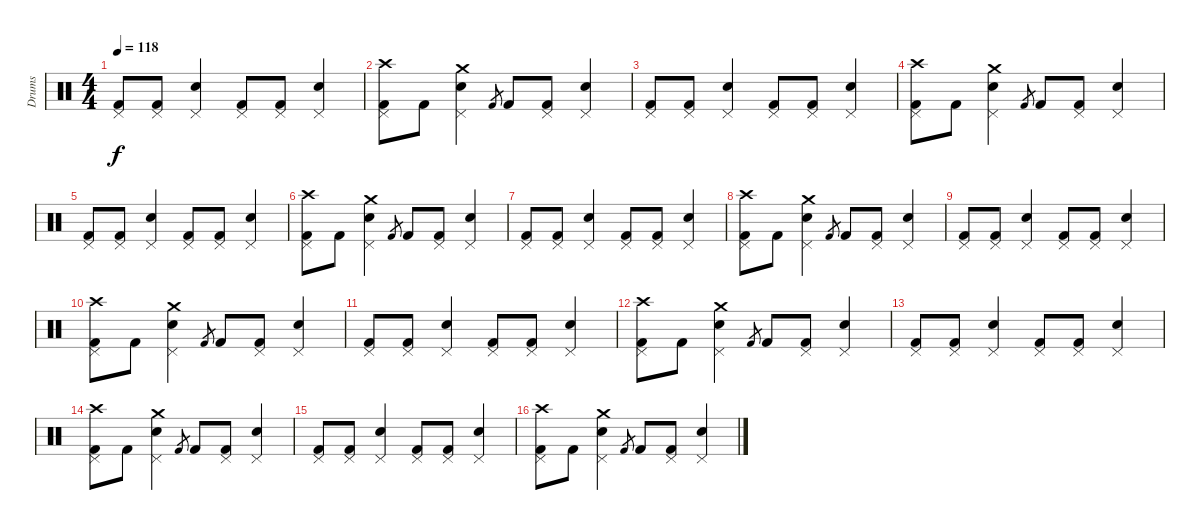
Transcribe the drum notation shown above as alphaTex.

\track ("Drums" "Drums") {instrument percussion}
\staff
\articulation defaults
\ts (4 4)
\tempo 118
\clef neutral
\ks c
("Pedal Hi-Hat (hit)" "Kick (hit) 2").8{dy f} ("Pedal Hi-Hat (hit)" "Kick (hit) 2").8 ("Pedal Hi-Hat (hit)" "Electric Snare (hit)").4 ("Pedal Hi-Hat (hit)" "Kick (hit) 2").8 ("Pedal Hi-Hat (hit)" "Kick (hit) 2").8 ("Pedal Hi-Hat (hit)" "Electric Snare (hit)").4 |
("Crash high (hit)" "Pedal Hi-Hat (hit)" "Kick (hit) 2").8 "Kick (hit) 2".8 ("Pedal Hi-Hat (hit)" "Electric Snare (hit)" "Crash medium (hit)").4 "Kick (hit) 2".8{gr} "Kick (hit) 2".8 ("Pedal Hi-Hat (hit)" "Kick (hit) 2").8 ("Pedal Hi-Hat (hit)" "Electric Snare (hit)").4 |
("Pedal Hi-Hat (hit)" "Kick (hit) 2").8 ("Pedal Hi-Hat (hit)" "Kick (hit) 2").8 ("Pedal Hi-Hat (hit)" "Electric Snare (hit)").4 ("Pedal Hi-Hat (hit)" "Kick (hit) 2").8 ("Pedal Hi-Hat (hit)" "Kick (hit) 2").8 ("Pedal Hi-Hat (hit)" "Electric Snare (hit)").4 |
("Crash high (hit)" "Pedal Hi-Hat (hit)" "Kick (hit) 2").8 "Kick (hit) 2".8 ("Pedal Hi-Hat (hit)" "Electric Snare (hit)" "Crash medium (hit)").4 "Kick (hit) 2".8{gr} "Kick (hit) 2".8 ("Pedal Hi-Hat (hit)" "Kick (hit) 2").8 ("Pedal Hi-Hat (hit)" "Electric Snare (hit)").4 |
("Pedal Hi-Hat (hit)" "Kick (hit) 2").8 ("Pedal Hi-Hat (hit)" "Kick (hit) 2").8 ("Pedal Hi-Hat (hit)" "Electric Snare (hit)").4 ("Pedal Hi-Hat (hit)" "Kick (hit) 2").8 ("Pedal Hi-Hat (hit)" "Kick (hit) 2").8 ("Pedal Hi-Hat (hit)" "Electric Snare (hit)").4 |
("Crash high (hit)" "Pedal Hi-Hat (hit)" "Kick (hit) 2").8 "Kick (hit) 2".8 ("Pedal Hi-Hat (hit)" "Electric Snare (hit)" "Crash medium (hit)").4 "Kick (hit) 2".8{gr} "Kick (hit) 2".8 ("Pedal Hi-Hat (hit)" "Kick (hit) 2").8 ("Pedal Hi-Hat (hit)" "Electric Snare (hit)").4 |
("Pedal Hi-Hat (hit)" "Kick (hit) 2").8 ("Pedal Hi-Hat (hit)" "Kick (hit) 2").8 ("Pedal Hi-Hat (hit)" "Electric Snare (hit)").4 ("Pedal Hi-Hat (hit)" "Kick (hit) 2").8 ("Pedal Hi-Hat (hit)" "Kick (hit) 2").8 ("Pedal Hi-Hat (hit)" "Electric Snare (hit)").4 |
("Crash high (hit)" "Pedal Hi-Hat (hit)" "Kick (hit) 2").8 "Kick (hit) 2".8 ("Pedal Hi-Hat (hit)" "Electric Snare (hit)" "Crash medium (hit)").4 "Kick (hit) 2".8{gr} "Kick (hit) 2".8 ("Pedal Hi-Hat (hit)" "Kick (hit) 2").8 ("Pedal Hi-Hat (hit)" "Electric Snare (hit)").4 |
("Pedal Hi-Hat (hit)" "Kick (hit) 2").8 ("Pedal Hi-Hat (hit)" "Kick (hit) 2").8 ("Pedal Hi-Hat (hit)" "Electric Snare (hit)").4 ("Pedal Hi-Hat (hit)" "Kick (hit) 2").8 ("Pedal Hi-Hat (hit)" "Kick (hit) 2").8 ("Pedal Hi-Hat (hit)" "Electric Snare (hit)").4 |
("Crash high (hit)" "Pedal Hi-Hat (hit)" "Kick (hit) 2").8 "Kick (hit) 2".8 ("Pedal Hi-Hat (hit)" "Electric Snare (hit)" "Crash medium (hit)").4 "Kick (hit) 2".8{gr} "Kick (hit) 2".8 ("Pedal Hi-Hat (hit)" "Kick (hit) 2").8 ("Pedal Hi-Hat (hit)" "Electric Snare (hit)").4 |
("Pedal Hi-Hat (hit)" "Kick (hit) 2").8 ("Pedal Hi-Hat (hit)" "Kick (hit) 2").8 ("Pedal Hi-Hat (hit)" "Electric Snare (hit)").4 ("Pedal Hi-Hat (hit)" "Kick (hit) 2").8 ("Pedal Hi-Hat (hit)" "Kick (hit) 2").8 ("Pedal Hi-Hat (hit)" "Electric Snare (hit)").4 |
("Crash high (hit)" "Pedal Hi-Hat (hit)" "Kick (hit) 2").8 "Kick (hit) 2".8 ("Pedal Hi-Hat (hit)" "Electric Snare (hit)" "Crash medium (hit)").4 "Kick (hit) 2".8{gr} "Kick (hit) 2".8 ("Pedal Hi-Hat (hit)" "Kick (hit) 2").8 ("Pedal Hi-Hat (hit)" "Electric Snare (hit)").4 |
("Pedal Hi-Hat (hit)" "Kick (hit) 2").8 ("Pedal Hi-Hat (hit)" "Kick (hit) 2").8 ("Pedal Hi-Hat (hit)" "Electric Snare (hit)").4 ("Pedal Hi-Hat (hit)" "Kick (hit) 2").8 ("Pedal Hi-Hat (hit)" "Kick (hit) 2").8 ("Pedal Hi-Hat (hit)" "Electric Snare (hit)").4 |
("Crash high (hit)" "Pedal Hi-Hat (hit)" "Kick (hit) 2").8 "Kick (hit) 2".8 ("Pedal Hi-Hat (hit)" "Electric Snare (hit)" "Crash medium (hit)").4 "Kick (hit) 2".8{gr} "Kick (hit) 2".8 ("Pedal Hi-Hat (hit)" "Kick (hit) 2").8 ("Pedal Hi-Hat (hit)" "Electric Snare (hit)").4 |
("Pedal Hi-Hat (hit)" "Kick (hit) 2").8 ("Pedal Hi-Hat (hit)" "Kick (hit) 2").8 ("Pedal Hi-Hat (hit)" "Electric Snare (hit)").4 ("Pedal Hi-Hat (hit)" "Kick (hit) 2").8 ("Pedal Hi-Hat (hit)" "Kick (hit) 2").8 ("Pedal Hi-Hat (hit)" "Electric Snare (hit)").4 |
("Crash high (hit)" "Pedal Hi-Hat (hit)" "Kick (hit) 2").8 "Kick (hit) 2".8 ("Pedal Hi-Hat (hit)" "Electric Snare (hit)" "Crash medium (hit)").4 "Kick (hit) 2".8{gr} "Kick (hit) 2".8 ("Pedal Hi-Hat (hit)" "Kick (hit) 2").8 ("Pedal Hi-Hat (hit)" "Electric Snare (hit)").4
